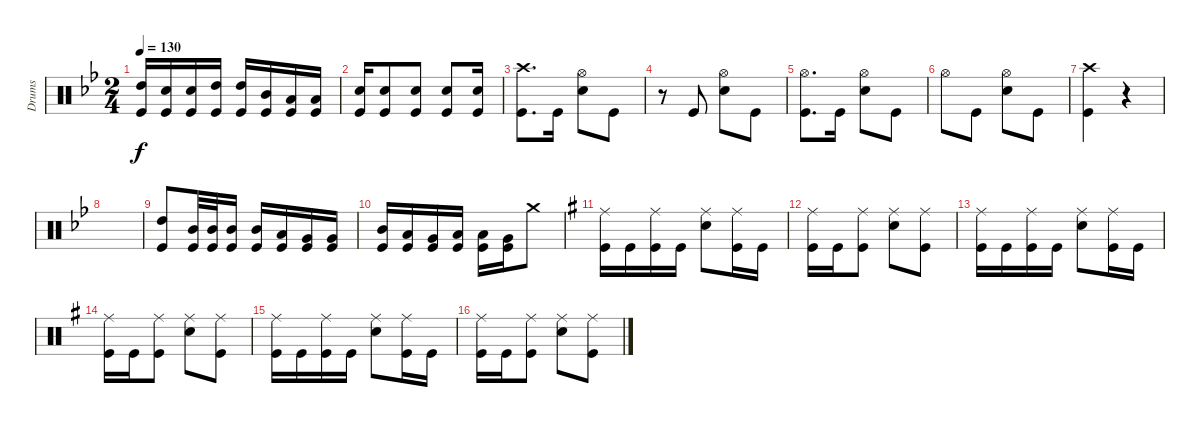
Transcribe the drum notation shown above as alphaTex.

\track ("Drums" "Drums") {instrument percussion}
\staff {score}
\articulation defaults
\ts (2 4)
\tempo 130
\clef neutral
\ks gminor
("High Tom (hit)" "Kick (hit)").16{dy f} ("Kick (hit)" "Snare (hit) 2").16 ("Kick (hit)" "Snare (hit) 2").16 ("Kick (hit)" "High Tom (hit)").16 ("Kick (hit)" "High Tom (hit)").16 ("Kick (hit)" "Mid Tom (hit)").16 ("Low Tom (hit)" "Kick (hit)").16 ("Kick (hit)" "Low Tom (hit)").16 |
("Snare (hit) 2" "Kick (hit)").16 ("Snare (hit) 2" "Kick (hit)").8 ("Snare (hit) 2" "Kick (hit)").8 ("Snare (hit) 2" "Kick (hit)").8 ("Snare (hit) 2" "Kick (hit)").16 |
("Kick (hit)" "Crash high (hit)").8{d} "Kick (hit)".16 ("Snare (hit) 2" "Hi-Hat (open)").8 "Kick (hit)".8 |
r.8 "Kick (hit)".8 ("Snare (hit) 2" "Hi-Hat (open)").8 "Kick (hit)".8 |
("Kick (hit)" "Hi-Hat (open)").8{d} "Kick (hit)".16 ("Snare (hit) 2" "Hi-Hat (open)").8 "Kick (hit)".8 |
"Hi-Hat (open)".8 "Kick (hit)".8 ("Snare (hit) 2" "Hi-Hat (open)").8 "Kick (hit)".8 |
("Crash high (hit)" "Kick (hit)").4 r.4 |
|
("Kick (hit)" "High Tom (hit)").8 ("Kick (hit)" "Mid Tom (hit)").32 ("Kick (hit)" "Mid Tom (hit)").32 ("Kick (hit)" "Mid Tom (hit)").16 ("Kick (hit)" "Mid Tom (hit)").16 ("Kick (hit)" "Low Tom (hit)").16 ("Kick (hit)" "Very Low Tom (hit)").16 ("Kick (hit)" "Very Low Tom (hit)").16 |
("Kick (hit)" "Mid Tom (hit)").16 ("Kick (hit)" "Low Tom (hit)").16 ("Kick (hit)" "Very Low Tom (hit)").16 ("Kick (hit)" "Low Tom (hit)").16 ("Kick (hit)" "Low Tom (hit)").16 ("Kick (hit)" "Very Low Tom (hit)").16 "Crash medium (hit)".8 |
\ks eminor
("Kick (hit)" "Ride (middle)").16 "Kick (hit)".16 ("Kick (hit)" "Ride (middle)").16 "Kick (hit)".16 ("Snare (hit) 2" "Ride (middle)").8 ("Ride (middle)" "Kick (hit)").16 "Kick (hit)".16 |
("Ride (middle)" "Kick (hit)").16 "Kick (hit)".16 ("Ride (middle)" "Kick (hit)").8 ("Snare (hit) 2" "Ride (middle)").8 ("Ride (middle)" "Kick (hit)").8 |
("Kick (hit)" "Ride (middle)").16 "Kick (hit)".16 ("Kick (hit)" "Ride (middle)").16 "Kick (hit)".16 ("Snare (hit) 2" "Ride (middle)").8 ("Ride (middle)" "Kick (hit)").16 "Kick (hit)".16 |
("Ride (middle)" "Kick (hit)").16 "Kick (hit)".16 ("Ride (middle)" "Kick (hit)").8 ("Snare (hit) 2" "Ride (middle)").8 ("Ride (middle)" "Kick (hit)").8 |
("Kick (hit)" "Ride (middle)").16 "Kick (hit)".16 ("Kick (hit)" "Ride (middle)").16 "Kick (hit)".16 ("Snare (hit) 2" "Ride (middle)").8 ("Ride (middle)" "Kick (hit)").16 "Kick (hit)".16 |
("Ride (middle)" "Kick (hit)").16 "Kick (hit)".16 ("Ride (middle)" "Kick (hit)").8 ("Snare (hit) 2" "Ride (middle)").8 ("Ride (middle)" "Kick (hit)").8
